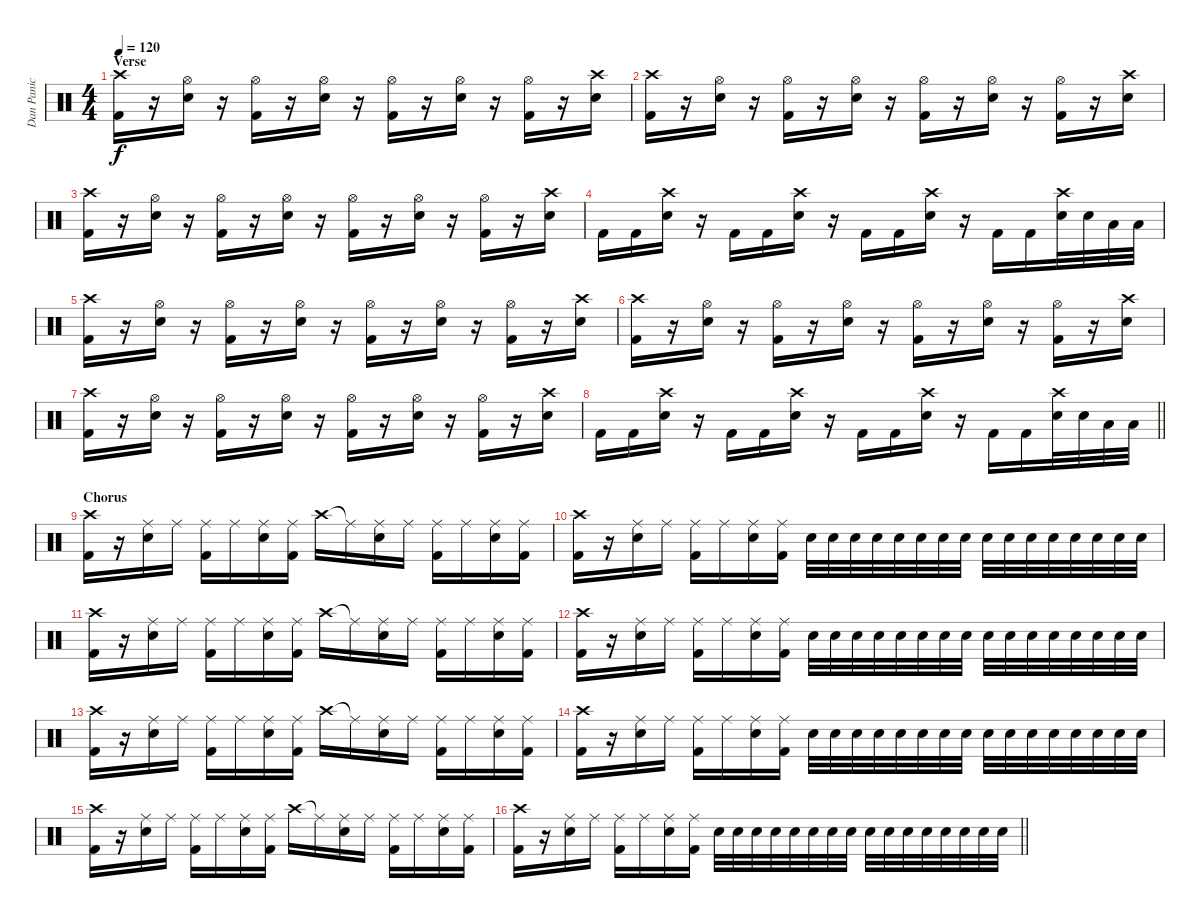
\track ("Dan Panic" "Dan Panic") {instrument percussion}
\staff {score}
\articulation defaults
\ts (4 4)
\section ("" "Verse")
\tempo 120
\clef neutral
\ks c
("Crash high (hit)" "Kick (hit) 2").16{dy f} r.16 ("Hi-Hat (open)" "Electric Snare (hit)").16 r.16 ("Hi-Hat (open)" "Kick (hit) 2").16 r.16 ("Hi-Hat (open)" "Electric Snare (hit)").16 r.16 ("Hi-Hat (open)" "Kick (hit) 2").16 r.16 ("Hi-Hat (open)" "Electric Snare (hit)").16 r.16 ("Hi-Hat (open)" "Kick (hit) 2").16 r.16 ("Crash high (hit)" "Electric Snare (hit)").16 |
("Crash high (hit)" "Kick (hit) 2").16 r.16 ("Hi-Hat (open)" "Electric Snare (hit)").16 r.16 ("Hi-Hat (open)" "Kick (hit) 2").16 r.16 ("Hi-Hat (open)" "Electric Snare (hit)").16 r.16 ("Hi-Hat (open)" "Kick (hit) 2").16 r.16 ("Hi-Hat (open)" "Electric Snare (hit)").16 r.16 ("Hi-Hat (open)" "Kick (hit) 2").16 r.16 ("Crash high (hit)" "Electric Snare (hit)").16 |
("Crash high (hit)" "Kick (hit) 2").16 r.16 ("Hi-Hat (open)" "Electric Snare (hit)").16 r.16 ("Hi-Hat (open)" "Kick (hit) 2").16 r.16 ("Hi-Hat (open)" "Electric Snare (hit)").16 r.16 ("Hi-Hat (open)" "Kick (hit) 2").16 r.16 ("Hi-Hat (open)" "Electric Snare (hit)").16 r.16 ("Hi-Hat (open)" "Kick (hit) 2").16 r.16 ("Crash high (hit)" "Electric Snare (hit)").16 |
"Kick (hit) 2".16 "Kick (hit) 2".16 ("Crash high (hit)" "Electric Snare (hit)").16 r.16 "Kick (hit) 2".16 "Kick (hit) 2".16 ("Crash high (hit)" "Electric Snare (hit)").16 r.16 "Kick (hit) 2".16 "Kick (hit) 2".16 ("Crash high (hit)" "Electric Snare (hit)").16 r.16 "Kick (hit) 2".16 "Kick (hit) 2".16 ("Crash high (hit)" "Electric Snare (hit)").32 "Electric Snare (hit)".32 "Low Tom (hit)".32 "Low Tom (hit)".32 |
("Crash high (hit)" "Kick (hit) 2").16 r.16 ("Hi-Hat (open)" "Electric Snare (hit)").16 r.16 ("Hi-Hat (open)" "Kick (hit) 2").16 r.16 ("Hi-Hat (open)" "Electric Snare (hit)").16 r.16 ("Hi-Hat (open)" "Kick (hit) 2").16 r.16 ("Hi-Hat (open)" "Electric Snare (hit)").16 r.16 ("Hi-Hat (open)" "Kick (hit) 2").16 r.16 ("Crash high (hit)" "Electric Snare (hit)").16 |
("Crash high (hit)" "Kick (hit) 2").16 r.16 ("Hi-Hat (open)" "Electric Snare (hit)").16 r.16 ("Hi-Hat (open)" "Kick (hit) 2").16 r.16 ("Hi-Hat (open)" "Electric Snare (hit)").16 r.16 ("Hi-Hat (open)" "Kick (hit) 2").16 r.16 ("Hi-Hat (open)" "Electric Snare (hit)").16 r.16 ("Hi-Hat (open)" "Kick (hit) 2").16 r.16 ("Crash high (hit)" "Electric Snare (hit)").16 |
("Crash high (hit)" "Kick (hit) 2").16 r.16 ("Hi-Hat (open)" "Electric Snare (hit)").16 r.16 ("Hi-Hat (open)" "Kick (hit) 2").16 r.16 ("Hi-Hat (open)" "Electric Snare (hit)").16 r.16 ("Hi-Hat (open)" "Kick (hit) 2").16 r.16 ("Hi-Hat (open)" "Electric Snare (hit)").16 r.16 ("Hi-Hat (open)" "Kick (hit) 2").16 r.16 ("Crash high (hit)" "Electric Snare (hit)").16 |
\barLineRight lightlight "Kick (hit) 2".16 "Kick (hit) 2".16
("Crash high (hit)" "Electric Snare (hit)").16 r.16 "Kick (hit) 2".16 "Kick (hit) 2".16 ("Crash high (hit)" "Electric Snare (hit)").16 r.16 "Kick (hit) 2".16 "Kick (hit) 2".16 ("Crash high (hit)" "Electric Snare (hit)").16 r.16 "Kick (hit) 2".16 "Kick (hit) 2".16 ("Crash high (hit)" "Electric Snare (hit)").32 "Electric Snare (hit)".32 "Low Tom (hit)".32 "Low Tom (hit)".32 |
\section ("" "Chorus")
("Crash high (hit)" "Kick (hit) 2").16 r.16 ("Ride (middle)" "Electric Snare (hit)").16 "Ride (middle)".16 ("Ride (middle)" "Kick (hit) 2").16 "Ride (middle)".16 ("Ride (middle)" "Electric Snare (hit)").16 ("Ride (middle)" "Kick (hit) 2").16 "Crash high (hit)".16 "Ride (middle)"{t}.16 ("Ride (middle)" "Electric Snare (hit)").16 "Ride (middle)".16 ("Ride (middle)" "Kick (hit) 2").16 "Ride (middle)".16 ("Ride (middle)" "Electric Snare (hit)").16 ("Ride (middle)" "Kick (hit) 2").16 |
("Crash high (hit)" "Kick (hit) 2").16 r.16 ("Ride (middle)" "Electric Snare (hit)").16 "Ride (middle)".16 ("Ride (middle)" "Kick (hit) 2").16 "Ride (middle)".16 ("Ride (middle)" "Electric Snare (hit)").16 ("Ride (middle)" "Kick (hit) 2").16 "Electric Snare (hit)".32 "Electric Snare (hit)".32 "Electric Snare (hit)".32 "Electric Snare (hit)".32 "Electric Snare (hit)".32 "Electric Snare (hit)".32 "Electric Snare (hit)".32 "Electric Snare (hit)".32 "Electric Snare (hit)".32 "Electric Snare (hit)".32 "Electric Snare (hit)".32 "Electric Snare (hit)".32 "Electric Snare (hit)".32 "Electric Snare (hit)".32 "Electric Snare (hit)".32 "Electric Snare (hit)".32 |
("Crash high (hit)" "Kick (hit) 2").16 r.16 ("Ride (middle)" "Electric Snare (hit)").16 "Ride (middle)".16 ("Ride (middle)" "Kick (hit) 2").16 "Ride (middle)".16 ("Ride (middle)" "Electric Snare (hit)").16 ("Ride (middle)" "Kick (hit) 2").16 "Crash high (hit)".16 "Ride (middle)"{t}.16 ("Ride (middle)" "Electric Snare (hit)").16 "Ride (middle)".16 ("Ride (middle)" "Kick (hit) 2").16 "Ride (middle)".16 ("Ride (middle)" "Electric Snare (hit)").16 ("Ride (middle)" "Kick (hit) 2").16 |
("Crash high (hit)" "Kick (hit) 2").16 r.16 ("Ride (middle)" "Electric Snare (hit)").16 "Ride (middle)".16 ("Ride (middle)" "Kick (hit) 2").16 "Ride (middle)".16 ("Ride (middle)" "Electric Snare (hit)").16 ("Ride (middle)" "Kick (hit) 2").16 "Electric Snare (hit)".32 "Electric Snare (hit)".32 "Electric Snare (hit)".32 "Electric Snare (hit)".32 "Electric Snare (hit)".32 "Electric Snare (hit)".32 "Electric Snare (hit)".32 "Electric Snare (hit)".32 "Electric Snare (hit)".32 "Electric Snare (hit)".32 "Electric Snare (hit)".32 "Electric Snare (hit)".32 "Electric Snare (hit)".32 "Electric Snare (hit)".32 "Electric Snare (hit)".32 "Electric Snare (hit)".32 |
("Crash high (hit)" "Kick (hit) 2").16 r.16 ("Ride (middle)" "Electric Snare (hit)").16 "Ride (middle)".16 ("Ride (middle)" "Kick (hit) 2").16 "Ride (middle)".16 ("Ride (middle)" "Electric Snare (hit)").16 ("Ride (middle)" "Kick (hit) 2").16 "Crash high (hit)".16 "Ride (middle)"{t}.16 ("Ride (middle)" "Electric Snare (hit)").16 "Ride (middle)".16 ("Ride (middle)" "Kick (hit) 2").16 "Ride (middle)".16 ("Ride (middle)" "Electric Snare (hit)").16 ("Ride (middle)" "Kick (hit) 2").16 |
("Crash high (hit)" "Kick (hit) 2").16 r.16 ("Ride (middle)" "Electric Snare (hit)").16 "Ride (middle)".16 ("Ride (middle)" "Kick (hit) 2").16 "Ride (middle)".16 ("Ride (middle)" "Electric Snare (hit)").16 ("Ride (middle)" "Kick (hit) 2").16 "Electric Snare (hit)".32 "Electric Snare (hit)".32 "Electric Snare (hit)".32 "Electric Snare (hit)".32 "Electric Snare (hit)".32 "Electric Snare (hit)".32 "Electric Snare (hit)".32 "Electric Snare (hit)".32 "Electric Snare (hit)".32 "Electric Snare (hit)".32 "Electric Snare (hit)".32 "Electric Snare (hit)".32 "Electric Snare (hit)".32 "Electric Snare (hit)".32 "Electric Snare (hit)".32 "Electric Snare (hit)".32 |
("Crash high (hit)" "Kick (hit) 2").16 r.16 ("Ride (middle)" "Electric Snare (hit)").16 "Ride (middle)".16 ("Ride (middle)" "Kick (hit) 2").16 "Ride (middle)".16 ("Ride (middle)" "Electric Snare (hit)").16 ("Ride (middle)" "Kick (hit) 2").16 "Crash high (hit)".16 "Ride (middle)"{t}.16 ("Ride (middle)" "Electric Snare (hit)").16 "Ride (middle)".16 ("Ride (middle)" "Kick (hit) 2").16 "Ride (middle)".16 ("Ride (middle)" "Electric Snare (hit)").16 ("Ride (middle)" "Kick (hit) 2").16 |
\barLineRight lightlight
("Crash high (hit)" "Kick (hit) 2").16 r.16 ("Ride (middle)" "Electric Snare (hit)").16 "Ride (middle)".16 ("Ride (middle)" "Kick (hit) 2").16 "Ride (middle)".16 ("Ride (middle)" "Electric Snare (hit)").16 ("Ride (middle)" "Kick (hit) 2").16 "Electric Snare (hit)".32 "Electric Snare (hit)".32 "Electric Snare (hit)".32 "Electric Snare (hit)".32 "Electric Snare (hit)".32 "Electric Snare (hit)".32 "Electric Snare (hit)".32 "Electric Snare (hit)".32 "Electric Snare (hit)".32 "Electric Snare (hit)".32 "Electric Snare (hit)".32 "Electric Snare (hit)".32 "Electric Snare (hit)".32 "Electric Snare (hit)".32 "Electric Snare (hit)".32 "Electric Snare (hit)".32
